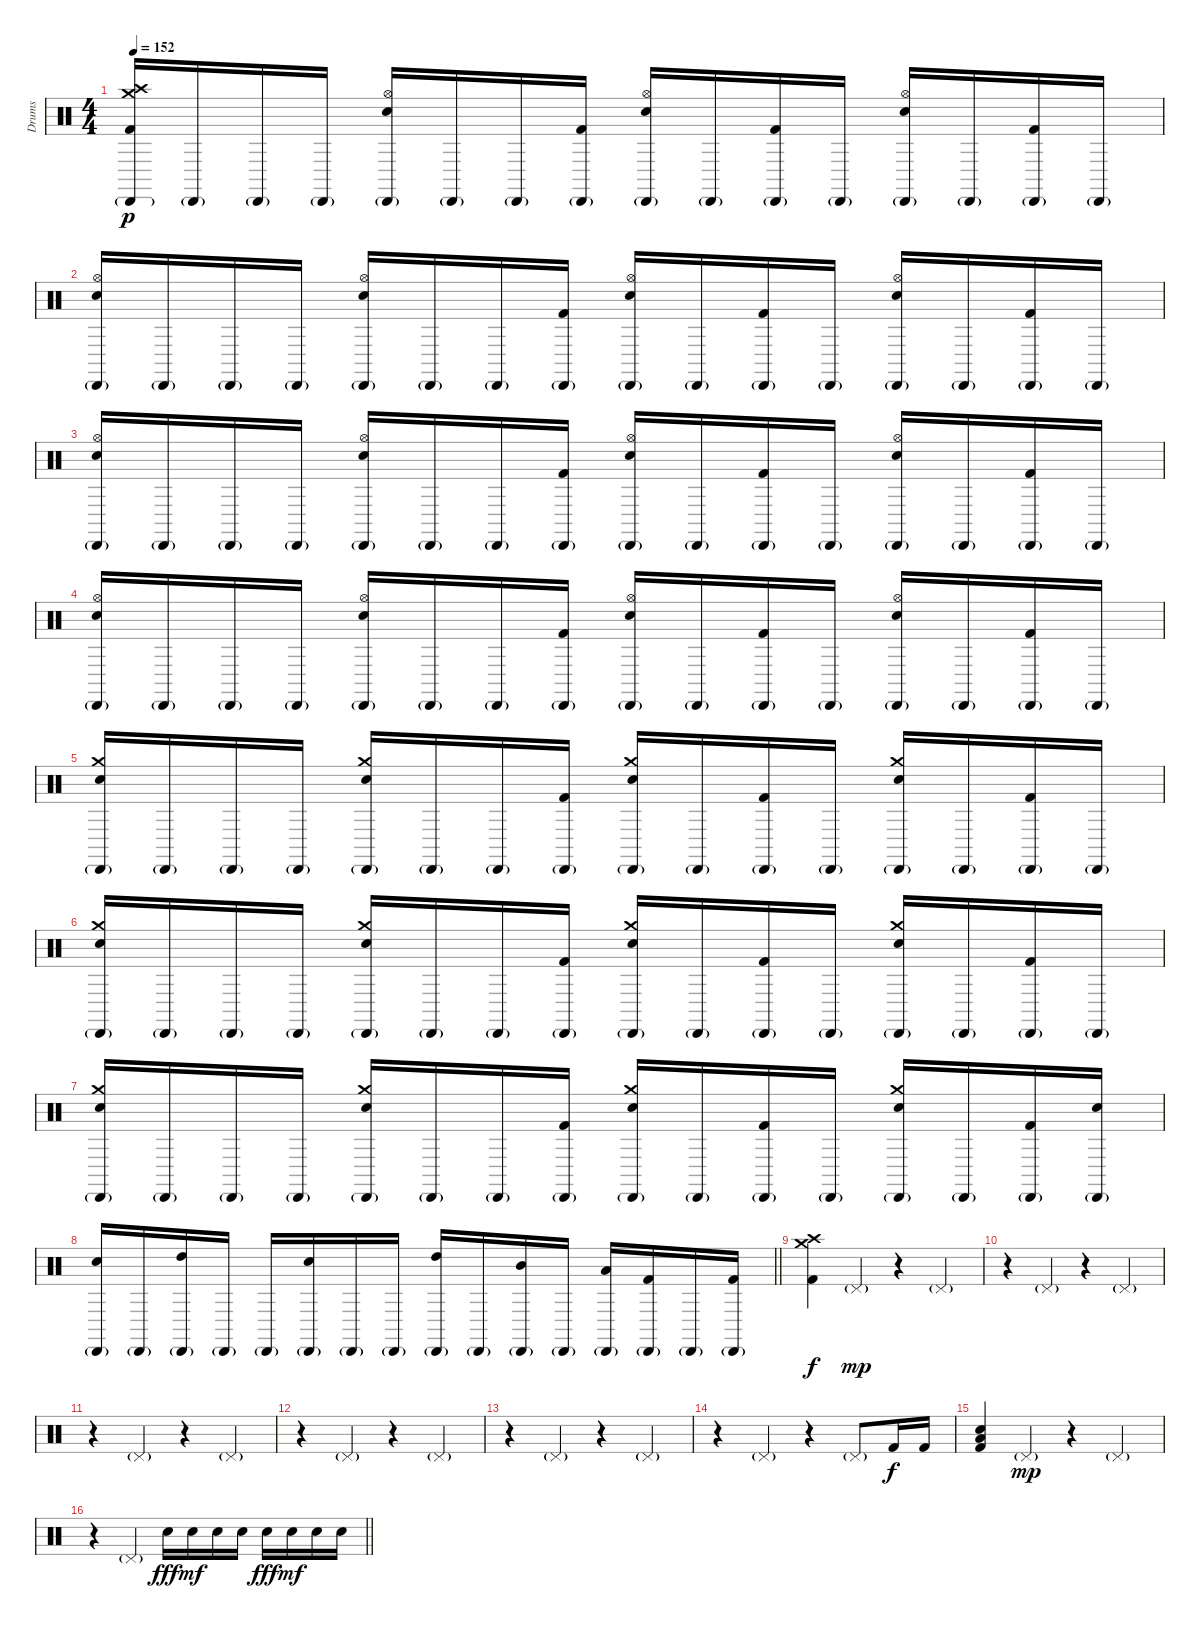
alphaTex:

\track ("Drums" "Drums") {instrument percussion}
\staff {score}
\articulation defaults
\ts (4 4)
\tempo 152
\clef neutral
\ks c
("Crash high (hit)" "Crash medium (hit)" "Cabasa (hit)"{g} "Kick (hit) 2").16{dy p} "Cabasa (hit)"{g}.16 "Cabasa (hit)"{g}.16 "Cabasa (hit)"{g}.16 ("Hi-Hat (open)" "Cabasa (hit)"{g} "Electric Snare (hit)").16 "Cabasa (hit)"{g}.16 "Cabasa (hit)"{g}.16 ("Cabasa (hit)"{g} "Kick (hit) 2").16 ("Hi-Hat (open)" "Cabasa (hit)"{g} "Electric Snare (hit)").16 "Cabasa (hit)"{g}.16 ("Cabasa (hit)"{g} "Kick (hit) 2").16 "Cabasa (hit)"{g}.16 ("Hi-Hat (open)" "Cabasa (hit)"{g} "Electric Snare (hit)").16 "Cabasa (hit)"{g}.16 ("Cabasa (hit)"{g} "Kick (hit) 2").16 "Cabasa (hit)"{g}.16 |
("Hi-Hat (open)" "Cabasa (hit)"{g} "Electric Snare (hit)").16 "Cabasa (hit)"{g}.16 "Cabasa (hit)"{g}.16 "Cabasa (hit)"{g}.16 ("Hi-Hat (open)" "Cabasa (hit)"{g} "Electric Snare (hit)").16 "Cabasa (hit)"{g}.16 "Cabasa (hit)"{g}.16 ("Cabasa (hit)"{g} "Kick (hit) 2").16 ("Hi-Hat (open)" "Cabasa (hit)"{g} "Electric Snare (hit)").16 "Cabasa (hit)"{g}.16 ("Cabasa (hit)"{g} "Kick (hit) 2").16 "Cabasa (hit)"{g}.16 ("Hi-Hat (open)" "Cabasa (hit)"{g} "Electric Snare (hit)").16 "Cabasa (hit)"{g}.16 ("Cabasa (hit)"{g} "Kick (hit) 2").16 "Cabasa (hit)"{g}.16 |
("Hi-Hat (open)" "Cabasa (hit)"{g} "Electric Snare (hit)").16 "Cabasa (hit)"{g}.16 "Cabasa (hit)"{g}.16 "Cabasa (hit)"{g}.16 ("Hi-Hat (open)" "Cabasa (hit)"{g} "Electric Snare (hit)").16 "Cabasa (hit)"{g}.16 "Cabasa (hit)"{g}.16 ("Cabasa (hit)"{g} "Kick (hit) 2").16 ("Hi-Hat (open)" "Cabasa (hit)"{g} "Electric Snare (hit)").16 "Cabasa (hit)"{g}.16 ("Cabasa (hit)"{g} "Kick (hit) 2").16 "Cabasa (hit)"{g}.16 ("Hi-Hat (open)" "Cabasa (hit)"{g} "Electric Snare (hit)").16 "Cabasa (hit)"{g}.16 ("Cabasa (hit)"{g} "Kick (hit) 2").16 "Cabasa (hit)"{g}.16 |
("Hi-Hat (open)" "Cabasa (hit)"{g} "Electric Snare (hit)").16 "Cabasa (hit)"{g}.16 "Cabasa (hit)"{g}.16 "Cabasa (hit)"{g}.16 ("Hi-Hat (open)" "Cabasa (hit)"{g} "Electric Snare (hit)").16 "Cabasa (hit)"{g}.16 "Cabasa (hit)"{g}.16 ("Cabasa (hit)"{g} "Kick (hit) 2").16 ("Hi-Hat (open)" "Cabasa (hit)"{g} "Electric Snare (hit)").16 "Cabasa (hit)"{g}.16 ("Cabasa (hit)"{g} "Kick (hit) 2").16 "Cabasa (hit)"{g}.16 ("Hi-Hat (open)" "Cabasa (hit)"{g} "Electric Snare (hit)").16 "Cabasa (hit)"{g}.16 ("Cabasa (hit)"{g} "Kick (hit) 2").16 "Cabasa (hit)"{g}.16 |
("Crash medium (hit)" "Cabasa (hit)"{g} "Electric Snare (hit)").16 "Cabasa (hit)"{g}.16 "Cabasa (hit)"{g}.16 "Cabasa (hit)"{g}.16 ("Crash medium (hit)" "Cabasa (hit)"{g} "Electric Snare (hit)").16 "Cabasa (hit)"{g}.16 "Cabasa (hit)"{g}.16 ("Cabasa (hit)"{g} "Kick (hit) 2").16 ("Crash medium (hit)" "Cabasa (hit)"{g} "Electric Snare (hit)").16 "Cabasa (hit)"{g}.16 ("Cabasa (hit)"{g} "Kick (hit) 2").16 "Cabasa (hit)"{g}.16 ("Crash medium (hit)" "Cabasa (hit)"{g} "Electric Snare (hit)").16 "Cabasa (hit)"{g}.16 ("Cabasa (hit)"{g} "Kick (hit) 2").16 "Cabasa (hit)"{g}.16 |
("Crash medium (hit)" "Cabasa (hit)"{g} "Electric Snare (hit)").16 "Cabasa (hit)"{g}.16 "Cabasa (hit)"{g}.16 "Cabasa (hit)"{g}.16 ("Crash medium (hit)" "Cabasa (hit)"{g} "Electric Snare (hit)").16 "Cabasa (hit)"{g}.16 "Cabasa (hit)"{g}.16 ("Cabasa (hit)"{g} "Kick (hit) 2").16 ("Crash medium (hit)" "Cabasa (hit)"{g} "Electric Snare (hit)").16 "Cabasa (hit)"{g}.16 ("Cabasa (hit)"{g} "Kick (hit) 2").16 "Cabasa (hit)"{g}.16 ("Crash medium (hit)" "Cabasa (hit)"{g} "Electric Snare (hit)").16 "Cabasa (hit)"{g}.16 ("Cabasa (hit)"{g} "Kick (hit) 2").16 "Cabasa (hit)"{g}.16 |
("Crash medium (hit)" "Cabasa (hit)"{g} "Electric Snare (hit)").16 "Cabasa (hit)"{g}.16 "Cabasa (hit)"{g}.16 "Cabasa (hit)"{g}.16 ("Crash medium (hit)" "Cabasa (hit)"{g} "Electric Snare (hit)").16 "Cabasa (hit)"{g}.16 "Cabasa (hit)"{g}.16 ("Cabasa (hit)"{g} "Kick (hit) 2").16 ("Crash medium (hit)" "Cabasa (hit)"{g} "Electric Snare (hit)").16 "Cabasa (hit)"{g}.16 ("Cabasa (hit)"{g} "Kick (hit) 2").16 "Cabasa (hit)"{g}.16 ("Crash medium (hit)" "Cabasa (hit)"{g} "Electric Snare (hit)").16 "Cabasa (hit)"{g}.16 ("Cabasa (hit)"{g} "Kick (hit) 2").16 ("Cabasa (hit)"{g} "Electric Snare (hit)").16 |
\barLineRight lightlight
("Cabasa (hit)"{g} "Electric Snare (hit)").16 "Cabasa (hit)"{g}.16 ("Cabasa (hit)"{g} "High Tom (hit)").16 "Cabasa (hit)"{g}.16 "Cabasa (hit)"{g}.16 ("Cabasa (hit)"{g} "Electric Snare (hit)").16 "Cabasa (hit)"{g}.16 "Cabasa (hit)"{g}.16 ("Cabasa (hit)"{g} "High Tom (hit)").16 "Cabasa (hit)"{g}.16 ("Cabasa (hit)"{g} "Mid Tom (hit)").16 "Cabasa (hit)"{g}.16 ("Cabasa (hit)"{g} "Low Tom (hit)").16 ("Cabasa (hit)"{g} "Kick (hit) 2").16 "Cabasa (hit)"{g}.16 ("Cabasa (hit)"{g} "Kick (hit) 2").16 |
("Crash high (hit)" "Crash medium (hit)" "Kick (hit) 2").4{dy f} "Pedal Hi-Hat (hit)"{g}.4{dy mp} r.4 "Pedal Hi-Hat (hit)"{g}.4 |
r.4 "Pedal Hi-Hat (hit)"{g}.4 r.4 "Pedal Hi-Hat (hit)"{g}.4 |
r.4 "Pedal Hi-Hat (hit)"{g}.4 r.4 "Pedal Hi-Hat (hit)"{g}.4 |
r.4 "Pedal Hi-Hat (hit)"{g}.4 r.4 "Pedal Hi-Hat (hit)"{g}.4 |
r.4 "Pedal Hi-Hat (hit)"{g}.4 r.4 "Pedal Hi-Hat (hit)"{g}.4 |
r.4 "Pedal Hi-Hat (hit)"{g}.4 r.4 "Pedal Hi-Hat (hit)"{g}.8 "Kick (hit) 2".16{dy f} "Kick (hit) 2".16 |
("Low Tom (hit)" "Electric Snare (hit)" "Kick (hit) 2").4 "Pedal Hi-Hat (hit)"{g}.4{dy mp} r.4 "Pedal Hi-Hat (hit)"{g}.4 |
\barLineRight lightlight
r.4 "Pedal Hi-Hat (hit)"{g}.4 "Electric Snare (hit)".16{dy fff} "Electric Snare (hit)".16{dy mf} "Electric Snare (hit)".16 "Electric Snare (hit)".16 "Electric Snare (hit)".16{dy fff} "Electric Snare (hit)".16{dy mf} "Electric Snare (hit)".16 "Electric Snare (hit)".16
